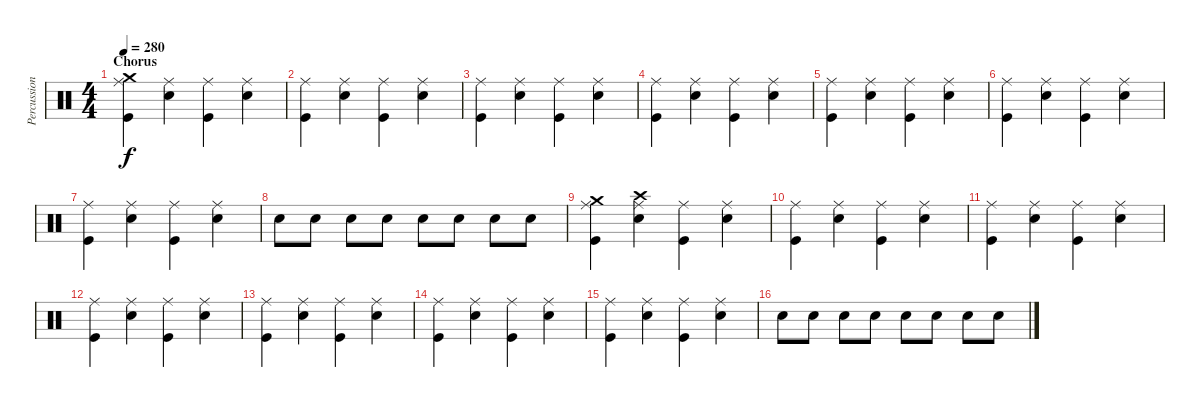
\track ("Percussion" "Percussion") {instrument percussion}
\staff {score}
\articulation defaults
\ts (4 4)
\section ("" "Chorus")
\tempo 280
\clef neutral
\ks c
("Crash medium (hit)" "Ride (middle)" "Kick (hit)").4{dy f} ("Ride (middle)" "Snare (hit) 2").4 ("Ride (middle)" "Kick (hit)").4 ("Ride (middle)" "Snare (hit) 2").4 |
("Ride (middle)" "Kick (hit)").4 ("Ride (middle)" "Snare (hit) 2").4 ("Ride (middle)" "Kick (hit)").4 ("Ride (middle)" "Snare (hit) 2").4 |
("Ride (middle)" "Kick (hit)").4 ("Ride (middle)" "Snare (hit) 2").4 ("Ride (middle)" "Kick (hit)").4 ("Ride (middle)" "Snare (hit) 2").4 |
("Ride (middle)" "Kick (hit)").4 ("Ride (middle)" "Snare (hit) 2").4 ("Ride (middle)" "Kick (hit)").4 ("Ride (middle)" "Snare (hit) 2").4 |
("Ride (middle)" "Kick (hit)").4 ("Ride (middle)" "Snare (hit) 2").4 ("Ride (middle)" "Kick (hit)").4 ("Ride (middle)" "Snare (hit) 2").4 |
("Ride (middle)" "Kick (hit)").4 ("Ride (middle)" "Snare (hit) 2").4 ("Ride (middle)" "Kick (hit)").4 ("Ride (middle)" "Snare (hit) 2").4 |
("Ride (middle)" "Kick (hit)").4 ("Ride (middle)" "Snare (hit) 2").4 ("Ride (middle)" "Kick (hit)").4 ("Ride (middle)" "Snare (hit) 2").4 |
"Snare (hit) 2".8 "Snare (hit) 2".8 "Snare (hit) 2".8 "Snare (hit) 2".8 "Snare (hit) 2".8 "Snare (hit) 2".8 "Snare (hit) 2".8 "Snare (hit) 2".8 |
("Crash medium (hit)" "Ride (middle)" "Kick (hit)").4 ("Crash high (hit)" "Ride (middle)" "Snare (hit) 2").4 ("Ride (middle)" "Kick (hit)").4 ("Ride (middle)" "Snare (hit) 2").4 |
("Ride (middle)" "Kick (hit)").4 ("Ride (middle)" "Snare (hit) 2").4 ("Ride (middle)" "Kick (hit)").4 ("Ride (middle)" "Snare (hit) 2").4 |
("Ride (middle)" "Kick (hit)").4 ("Ride (middle)" "Snare (hit) 2").4 ("Ride (middle)" "Kick (hit)").4 ("Ride (middle)" "Snare (hit) 2").4 |
("Ride (middle)" "Kick (hit)").4 ("Ride (middle)" "Snare (hit) 2").4 ("Ride (middle)" "Kick (hit)").4 ("Ride (middle)" "Snare (hit) 2").4 |
("Ride (middle)" "Kick (hit)").4 ("Ride (middle)" "Snare (hit) 2").4 ("Ride (middle)" "Kick (hit)").4 ("Ride (middle)" "Snare (hit) 2").4 |
("Ride (middle)" "Kick (hit)").4 ("Ride (middle)" "Snare (hit) 2").4 ("Ride (middle)" "Kick (hit)").4 ("Ride (middle)" "Snare (hit) 2").4 |
("Ride (middle)" "Kick (hit)").4 ("Ride (middle)" "Snare (hit) 2").4 ("Ride (middle)" "Kick (hit)").4 ("Ride (middle)" "Snare (hit) 2").4 |
"Snare (hit) 2".8 "Snare (hit) 2".8 "Snare (hit) 2".8 "Snare (hit) 2".8 "Snare (hit) 2".8 "Snare (hit) 2".8 "Snare (hit) 2".8 "Snare (hit) 2".8
